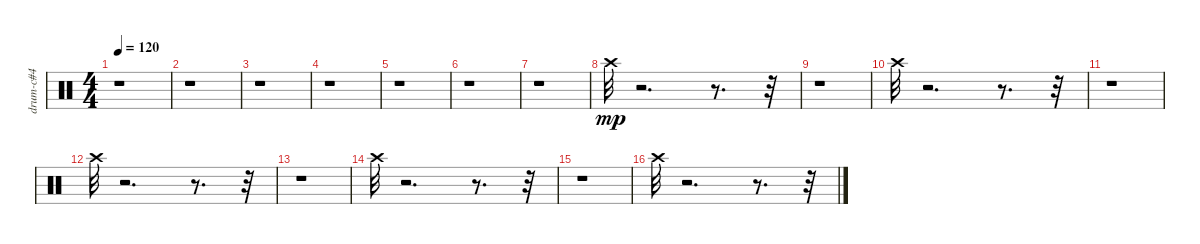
\track ("drum-c#4" "drum-c#4") {instrument percussion}
\staff {score}
\articulation defaults
\ts (4 4)
\tempo 120
\clef neutral
\ks c
r.1{dy mp} |
r.1 |
r.1 |
r.1 |
r.1 |
r.1 |
r.1 |
"Crash high (hit)".32 r.2{d} r.8{d} r.32 |
r.1 |
"Crash high (hit)".32 r.2{d} r.8{d} r.32 |
r.1 |
"Crash high (hit)".32 r.2{d} r.8{d} r.32 |
r.1 |
"Crash high (hit)".32 r.2{d} r.8{d} r.32 |
r.1 |
"Crash high (hit)".32 r.2{d} r.8{d} r.32
